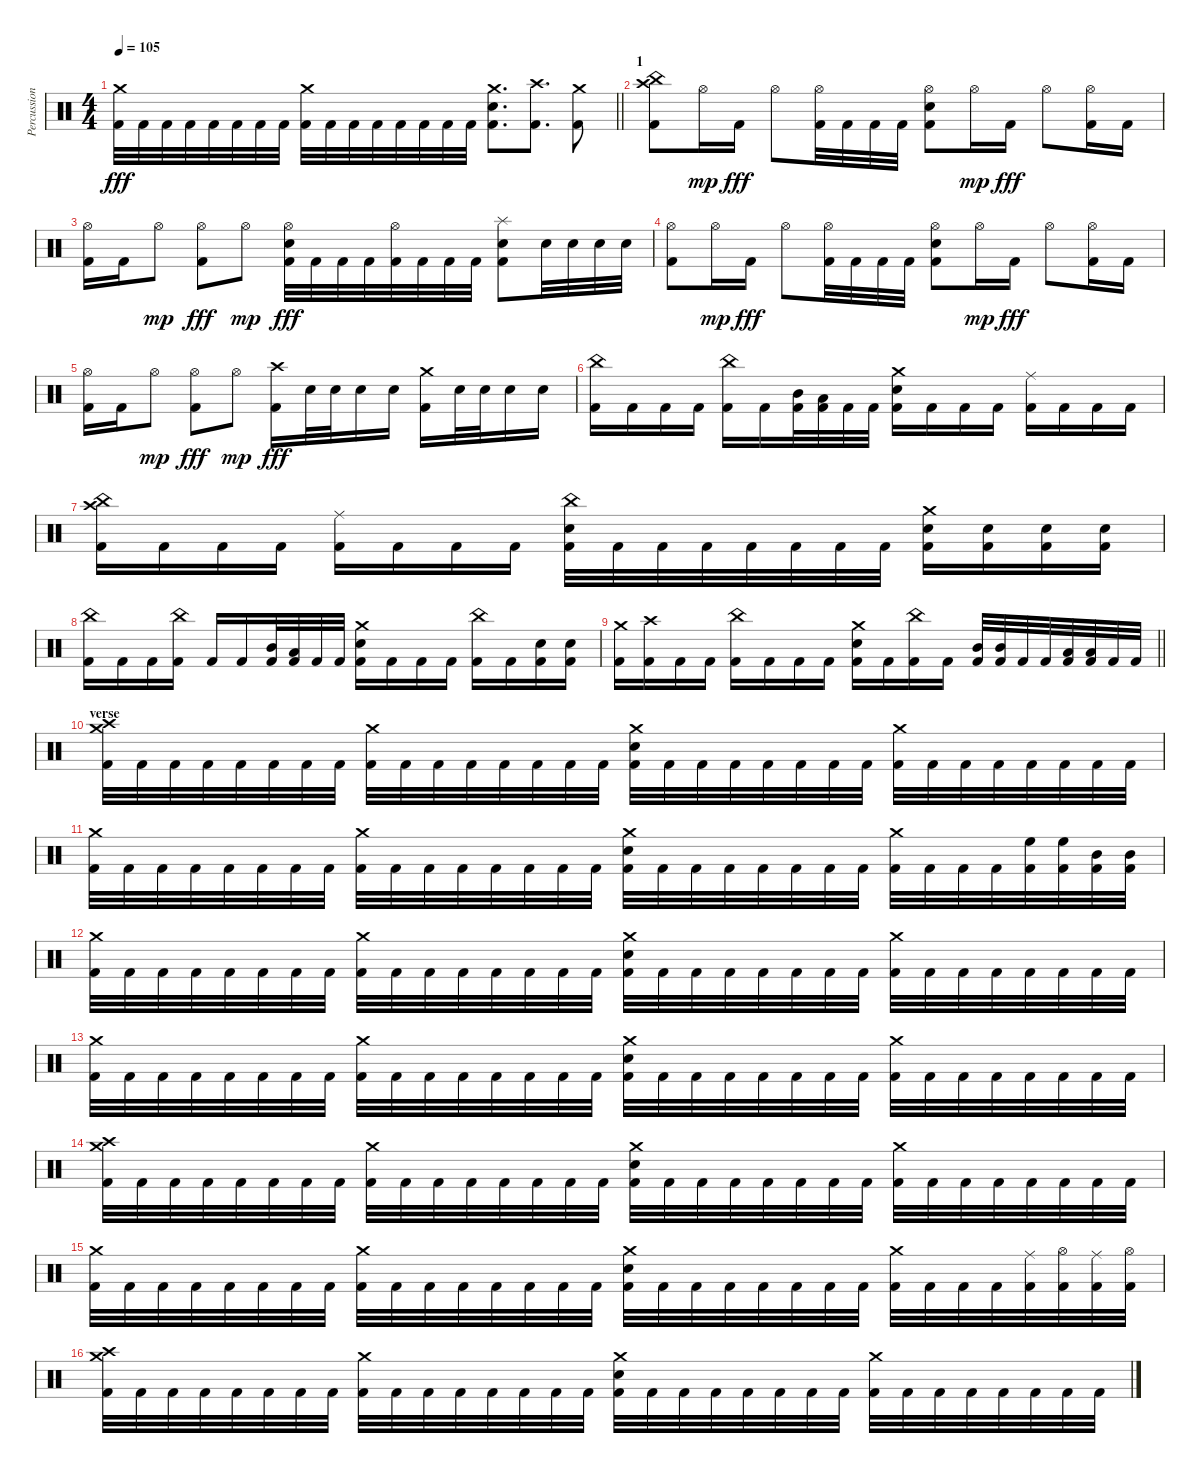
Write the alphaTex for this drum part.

\track ("Percussion" "Percussion") {instrument percussion}
\staff {score}
\articulation defaults
\ts (4 4)
\tempo 105
\clef neutral
\barLineRight lightlight
\ks c
("Crash medium (hit)" "Kick (hit) 2").32{dy fff} "Kick (hit) 2".32 "Kick (hit) 2".32 "Kick (hit) 2".32 "Kick (hit) 2".32 "Kick (hit) 2".32 "Kick (hit) 2".32 "Kick (hit) 2".32 ("Crash medium (hit)" "Kick (hit) 2").32 "Kick (hit) 2".32 "Kick (hit) 2".32 "Kick (hit) 2".32 "Kick (hit) 2".32 "Kick (hit) 2".32 "Kick (hit) 2".32 "Kick (hit) 2".32 ("Crash medium (hit)" "Snare (hit) 2" "Kick (hit) 2").8{d} ("Crash high (hit)" "Kick (hit) 2").8{d} ("Crash medium (hit)" "Kick (hit) 2").8 |
\section ("" "1")
("China (hit)" "Crash high (hit)" "Kick (hit) 2").8 "Hi-Hat (open)".16{dy mp} "Kick (hit) 2".16{dy fff} "Hi-Hat (open)".8 ("Hi-Hat (open)" "Kick (hit) 2").32 "Kick (hit) 2".32 "Kick (hit) 2".32 "Kick (hit) 2".32 ("Snare (hit) 2" "Hi-Hat (open)" "Kick (hit) 2").8 "Hi-Hat (open)".16{dy mp} "Kick (hit) 2".16{dy fff} "Hi-Hat (open)".8 ("Hi-Hat (open)" "Kick (hit) 2").16 "Kick (hit) 2".16 |
("Hi-Hat (open)" "Kick (hit) 2").16 "Kick (hit) 2".16 "Hi-Hat (open)".8{dy mp} ("Hi-Hat (open)" "Kick (hit) 2").8{dy fff} "Hi-Hat (open)".8{dy mp} ("Snare (hit) 2" "Hi-Hat (open)" "Kick (hit) 2").32{dy fff} "Kick (hit) 2".32 "Kick (hit) 2".32 "Kick (hit) 2".32 ("Hi-Hat (open)" "Kick (hit) 2").32 "Kick (hit) 2".32 "Kick (hit) 2".32 "Kick (hit) 2".32 ("Splash (hit)" "Snare (hit) 2" "Kick (hit) 2").8 "Snare (hit) 2".32 "Snare (hit) 2".32 "Snare (hit) 2".32 "Snare (hit) 2".32 |
("Hi-Hat (open)" "Kick (hit) 2").8 "Hi-Hat (open)".16{dy mp} "Kick (hit) 2".16{dy fff} "Hi-Hat (open)".8 ("Hi-Hat (open)" "Kick (hit) 2").32 "Kick (hit) 2".32 "Kick (hit) 2".32 "Kick (hit) 2".32 ("Snare (hit) 2" "Hi-Hat (open)" "Kick (hit) 2").8 "Hi-Hat (open)".16{dy mp} "Kick (hit) 2".16{dy fff} "Hi-Hat (open)".8 ("Hi-Hat (open)" "Kick (hit) 2").16 "Kick (hit) 2".16 |
("Hi-Hat (open)" "Kick (hit) 2").16 "Kick (hit) 2".16 "Hi-Hat (open)".8{dy mp} ("Hi-Hat (open)" "Kick (hit) 2").8{dy fff} "Hi-Hat (open)".8{dy mp} ("Crash high (hit)" "Kick (hit) 2").16{dy fff} "Snare (hit) 2".32 "Snare (hit) 2".32 "Snare (hit) 2".16 "Snare (hit) 2".16 ("Crash medium (hit)" "Kick (hit) 2").16 "Snare (hit) 2".32 "Snare (hit) 2".32 "Snare (hit) 2".16 "Snare (hit) 2".16 |
("China (hit)" "Kick (hit) 2").16 "Kick (hit) 2".16 "Kick (hit) 2".16 "Kick (hit) 2".16 ("China (hit)" "Kick (hit) 2").16 "Kick (hit) 2".16 ("Mid Tom (hit)" "Kick (hit) 2").32 ("Low Tom (hit)" "Kick (hit) 2").32 "Kick (hit) 2".32 "Kick (hit) 2".32 ("Crash medium (hit)" "Snare (hit) 2" "Kick (hit) 2").16 "Kick (hit) 2".16 "Kick (hit) 2".16 "Kick (hit) 2".16 ("Ride (middle)" "Kick (hit) 2").16 "Kick (hit) 2".16 "Kick (hit) 2".16 "Kick (hit) 2".16 |
("China (hit)" "Crash high (hit)" "Kick (hit) 2").16 "Kick (hit) 2".16 "Kick (hit) 2".16 "Kick (hit) 2".16 ("Ride (middle)" "Kick (hit) 2").16 "Kick (hit) 2".16 "Kick (hit) 2".16 "Kick (hit) 2".16 ("China (hit)" "Snare (hit) 2" "Kick (hit) 2").32 "Kick (hit) 2".32 "Kick (hit) 2".32 "Kick (hit) 2".32 "Kick (hit) 2".32 "Kick (hit) 2".32 "Kick (hit) 2".32 "Kick (hit) 2".32 ("Crash medium (hit)" "Snare (hit) 2" "Kick (hit) 2").16 ("Snare (hit) 2" "Kick (hit) 2").16 ("Snare (hit) 2" "Kick (hit) 2").16 ("Snare (hit) 2" "Kick (hit) 2").16 |
("China (hit)" "Kick (hit) 2").16 "Kick (hit) 2".16 "Kick (hit) 2".16 ("China (hit)" "Kick (hit) 2").16 "Kick (hit) 2".16 "Kick (hit) 2".16 ("Mid Tom (hit)" "Kick (hit) 2").32 ("Low Tom (hit)" "Kick (hit) 2").32 "Kick (hit) 2".32 "Kick (hit) 2".32 ("Crash medium (hit)" "Snare (hit) 2" "Kick (hit) 2").16 "Kick (hit) 2".16 "Kick (hit) 2".16 "Kick (hit) 2".16 ("China (hit)" "Kick (hit) 2").16 "Kick (hit) 2".16 ("Snare (hit) 2" "Kick (hit) 2").16 ("Snare (hit) 2" "Kick (hit) 2").16 |
\barLineRight lightlight
("Crash medium (hit)" "Kick (hit) 2").16 ("Crash high (hit)" "Kick (hit) 2").16 "Kick (hit) 2".16 "Kick (hit) 2".16 ("China (hit)" "Kick (hit) 2").16 "Kick (hit) 2".16 "Kick (hit) 2".16 "Kick (hit) 2".16 ("Crash medium (hit)" "Snare (hit) 2" "Kick (hit) 2").16 "Kick (hit) 2".16 ("China (hit)" "Kick (hit) 2").16 "Kick (hit) 2".16 ("Mid Tom (hit)" "Kick (hit) 2").32 ("Mid Tom (hit)" "Kick (hit) 2").32 "Kick (hit) 2".32 "Kick (hit) 2".32 ("Low Tom (hit)" "Kick (hit) 2").32 ("Low Tom (hit)" "Kick (hit) 2").32 "Kick (hit) 2".32 "Kick (hit) 2".32 |
\section ("" "verse")
("Crash medium (hit)" "Crash high (hit)" "Kick (hit) 2").32 "Kick (hit) 2".32 "Kick (hit) 2".32 "Kick (hit) 2".32 "Kick (hit) 2".32 "Kick (hit) 2".32 "Kick (hit) 2".32 "Kick (hit) 2".32 ("Crash medium (hit)" "Kick (hit) 2").32 "Kick (hit) 2".32 "Kick (hit) 2".32 "Kick (hit) 2".32 "Kick (hit) 2".32 "Kick (hit) 2".32 "Kick (hit) 2".32 "Kick (hit) 2".32 ("Crash medium (hit)" "Snare (hit) 2" "Kick (hit) 2").32 "Kick (hit) 2".32 "Kick (hit) 2".32 "Kick (hit) 2".32 "Kick (hit) 2".32 "Kick (hit) 2".32 "Kick (hit) 2".32 "Kick (hit) 2".32 ("Crash medium (hit)" "Kick (hit) 2").32 "Kick (hit) 2".32 "Kick (hit) 2".32 "Kick (hit) 2".32 "Kick (hit) 2".32 "Kick (hit) 2".32 "Kick (hit) 2".32 "Kick (hit) 2".32 |
("Crash medium (hit)" "Kick (hit) 2").32 "Kick (hit) 2".32 "Kick (hit) 2".32 "Kick (hit) 2".32 "Kick (hit) 2".32 "Kick (hit) 2".32 "Kick (hit) 2".32 "Kick (hit) 2".32 ("Crash medium (hit)" "Kick (hit) 2").32 "Kick (hit) 2".32 "Kick (hit) 2".32 "Kick (hit) 2".32 "Kick (hit) 2".32 "Kick (hit) 2".32 "Kick (hit) 2".32 "Kick (hit) 2".32 ("Crash medium (hit)" "Snare (hit) 2" "Kick (hit) 2").32 "Kick (hit) 2".32 "Kick (hit) 2".32 "Kick (hit) 2".32 "Kick (hit) 2".32 "Kick (hit) 2".32 "Kick (hit) 2".32 "Kick (hit) 2".32 ("Crash medium (hit)" "Kick (hit) 2").32 "Kick (hit) 2".32 "Kick (hit) 2".32 "Kick (hit) 2".32 ("High Floor Tom (hit)" "Kick (hit) 2").32 ("High Floor Tom (hit)" "Kick (hit) 2").32 ("Mid Tom (hit)" "Kick (hit) 2").32 ("Mid Tom (hit)" "Kick (hit) 2").32 |
("Crash medium (hit)" "Kick (hit) 2").32 "Kick (hit) 2".32 "Kick (hit) 2".32 "Kick (hit) 2".32 "Kick (hit) 2".32 "Kick (hit) 2".32 "Kick (hit) 2".32 "Kick (hit) 2".32 ("Crash medium (hit)" "Kick (hit) 2").32 "Kick (hit) 2".32 "Kick (hit) 2".32 "Kick (hit) 2".32 "Kick (hit) 2".32 "Kick (hit) 2".32 "Kick (hit) 2".32 "Kick (hit) 2".32 ("Crash medium (hit)" "Snare (hit) 2" "Kick (hit) 2").32 "Kick (hit) 2".32 "Kick (hit) 2".32 "Kick (hit) 2".32 "Kick (hit) 2".32 "Kick (hit) 2".32 "Kick (hit) 2".32 "Kick (hit) 2".32 ("Crash medium (hit)" "Kick (hit) 2").32 "Kick (hit) 2".32 "Kick (hit) 2".32 "Kick (hit) 2".32 "Kick (hit) 2".32 "Kick (hit) 2".32 "Kick (hit) 2".32 "Kick (hit) 2".32 |
("Crash medium (hit)" "Kick (hit) 2").32 "Kick (hit) 2".32 "Kick (hit) 2".32 "Kick (hit) 2".32 "Kick (hit) 2".32 "Kick (hit) 2".32 "Kick (hit) 2".32 "Kick (hit) 2".32 ("Crash medium (hit)" "Kick (hit) 2").32 "Kick (hit) 2".32 "Kick (hit) 2".32 "Kick (hit) 2".32 "Kick (hit) 2".32 "Kick (hit) 2".32 "Kick (hit) 2".32 "Kick (hit) 2".32 ("Crash medium (hit)" "Snare (hit) 2" "Kick (hit) 2").32 "Kick (hit) 2".32 "Kick (hit) 2".32 "Kick (hit) 2".32 "Kick (hit) 2".32 "Kick (hit) 2".32 "Kick (hit) 2".32 "Kick (hit) 2".32 ("Crash medium (hit)" "Kick (hit) 2").32 "Kick (hit) 2".32 "Kick (hit) 2".32 "Kick (hit) 2".32 "Kick (hit) 2".32 "Kick (hit) 2".32 "Kick (hit) 2".32 "Kick (hit) 2".32 |
("Crash medium (hit)" "Crash high (hit)" "Kick (hit) 2").32 "Kick (hit) 2".32 "Kick (hit) 2".32 "Kick (hit) 2".32 "Kick (hit) 2".32 "Kick (hit) 2".32 "Kick (hit) 2".32 "Kick (hit) 2".32 ("Crash medium (hit)" "Kick (hit) 2").32 "Kick (hit) 2".32 "Kick (hit) 2".32 "Kick (hit) 2".32 "Kick (hit) 2".32 "Kick (hit) 2".32 "Kick (hit) 2".32 "Kick (hit) 2".32 ("Crash medium (hit)" "Snare (hit) 2" "Kick (hit) 2").32 "Kick (hit) 2".32 "Kick (hit) 2".32 "Kick (hit) 2".32 "Kick (hit) 2".32 "Kick (hit) 2".32 "Kick (hit) 2".32 "Kick (hit) 2".32 ("Crash medium (hit)" "Kick (hit) 2").32 "Kick (hit) 2".32 "Kick (hit) 2".32 "Kick (hit) 2".32 "Kick (hit) 2".32 "Kick (hit) 2".32 "Kick (hit) 2".32 "Kick (hit) 2".32 |
("Crash medium (hit)" "Kick (hit) 2").32 "Kick (hit) 2".32 "Kick (hit) 2".32 "Kick (hit) 2".32 "Kick (hit) 2".32 "Kick (hit) 2".32 "Kick (hit) 2".32 "Kick (hit) 2".32 ("Crash medium (hit)" "Kick (hit) 2").32 "Kick (hit) 2".32 "Kick (hit) 2".32 "Kick (hit) 2".32 "Kick (hit) 2".32 "Kick (hit) 2".32 "Kick (hit) 2".32 "Kick (hit) 2".32 ("Crash medium (hit)" "Snare (hit) 2" "Kick (hit) 2").32 "Kick (hit) 2".32 "Kick (hit) 2".32 "Kick (hit) 2".32 "Kick (hit) 2".32 "Kick (hit) 2".32 "Kick (hit) 2".32 "Kick (hit) 2".32 ("Crash medium (hit)" "Kick (hit) 2").32 "Kick (hit) 2".32 "Kick (hit) 2".32 "Kick (hit) 2".32 ("Ride (middle)" "Kick (hit) 2").32 ("Hi-Hat (open)" "Kick (hit) 2").32 ("Ride (middle)" "Kick (hit) 2").32 ("Hi-Hat (open)" "Kick (hit) 2").32 |
("Crash medium (hit)" "Crash high (hit)" "Kick (hit) 2").32 "Kick (hit) 2".32 "Kick (hit) 2".32 "Kick (hit) 2".32 "Kick (hit) 2".32 "Kick (hit) 2".32 "Kick (hit) 2".32 "Kick (hit) 2".32 ("Crash medium (hit)" "Kick (hit) 2").32 "Kick (hit) 2".32 "Kick (hit) 2".32 "Kick (hit) 2".32 "Kick (hit) 2".32 "Kick (hit) 2".32 "Kick (hit) 2".32 "Kick (hit) 2".32 ("Crash medium (hit)" "Snare (hit) 2" "Kick (hit) 2").32 "Kick (hit) 2".32 "Kick (hit) 2".32 "Kick (hit) 2".32 "Kick (hit) 2".32 "Kick (hit) 2".32 "Kick (hit) 2".32 "Kick (hit) 2".32 ("Crash medium (hit)" "Kick (hit) 2").32 "Kick (hit) 2".32 "Kick (hit) 2".32 "Kick (hit) 2".32 "Kick (hit) 2".32 "Kick (hit) 2".32 "Kick (hit) 2".32 "Kick (hit) 2".32
